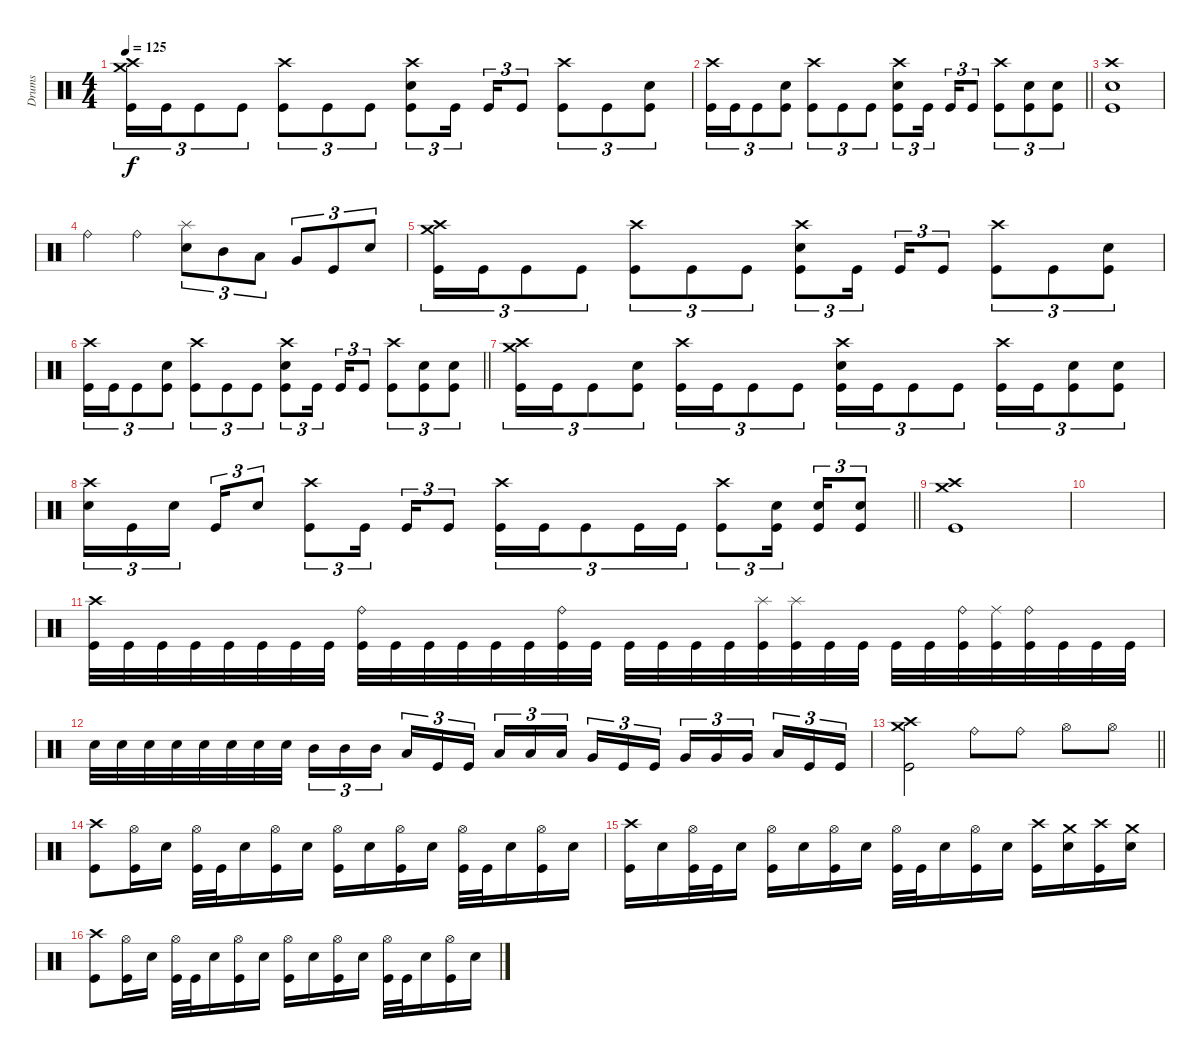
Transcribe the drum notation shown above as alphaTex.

\track ("Drums" "Drums") {instrument percussion}
\staff
\articulation defaults
\ts (4 4)
\tempo 125
\clef neutral
\ks c
("Crash high (hit)" "Crash medium (hit)" "Kick (hit)").16{tu (3 2) dy f} "Kick (hit)".16{tu (3 2)} "Kick (hit)".8{tu (3 2)} "Kick (hit)".8{tu (3 2)} ("Crash high (hit)" "Kick (hit)").8{tu (3 2)} "Kick (hit)".8{tu (3 2)} "Kick (hit)".8{tu (3 2)} ("Crash high (hit)" "Electric Snare (hit)" "Kick (hit)").8{tu (3 2)} "Kick (hit)".16{tu (3 2) beam splitsecondary} "Kick (hit)".16{tu (3 2)} "Kick (hit)".8{tu (3 2)} ("Crash high (hit)" "Kick (hit)").8{tu (3 2)} "Kick (hit)".8{tu (3 2)} ("Electric Snare (hit)" "Kick (hit)").8{tu (3 2)} |
\barLineRight lightlight
("Crash high (hit)" "Kick (hit)").16{tu (3 2)} "Kick (hit)".16{tu (3 2)} "Kick (hit)".8{tu (3 2)} ("Electric Snare (hit)" "Kick (hit)").8{tu (3 2)} ("Crash high (hit)" "Kick (hit)").8{tu (3 2)} "Kick (hit)".8{tu (3 2)} "Kick (hit)".8{tu (3 2)} ("Crash high (hit)" "Electric Snare (hit)" "Kick (hit)").8{tu (3 2)} "Kick (hit)".16{tu (3 2) beam splitsecondary} "Kick (hit)".16{tu (3 2)} "Kick (hit)".8{tu (3 2)} ("Crash high (hit)" "Kick (hit)").8{tu (3 2)} ("Electric Snare (hit)" "Kick (hit)").8{tu (3 2)} ("Electric Snare (hit)" "Kick (hit)").8{tu (3 2)} |
("Crash high (hit)" "Electric Snare (hit)" "Kick (hit)").1 |
"Ride (bell)".4 "Ride (bell)".4 ("Splash (hit)" "Electric Snare (hit)").8{tu (3 2)} "Mid Tom (hit)".8{tu (3 2)} "Low Tom (hit)".8{tu (3 2)} "Very Low Tom (hit)".8{tu (3 2)} "Kick (hit)".8{tu (3 2)} "Electric Snare (hit)".8{tu (3 2)} |
("Crash high (hit)" "Crash medium (hit)" "Kick (hit)").16{tu (3 2)} "Kick (hit)".16{tu (3 2)} "Kick (hit)".8{tu (3 2)} "Kick (hit)".8{tu (3 2)} ("Crash high (hit)" "Kick (hit)").8{tu (3 2)} "Kick (hit)".8{tu (3 2)} "Kick (hit)".8{tu (3 2)} ("Crash high (hit)" "Electric Snare (hit)" "Kick (hit)").8{tu (3 2)} "Kick (hit)".16{tu (3 2) beam splitsecondary} "Kick (hit)".16{tu (3 2)} "Kick (hit)".8{tu (3 2)} ("Crash high (hit)" "Kick (hit)").8{tu (3 2)} "Kick (hit)".8{tu (3 2)} ("Electric Snare (hit)" "Kick (hit)").8{tu (3 2)} |
\barLineRight lightlight
("Crash high (hit)" "Kick (hit)").16{tu (3 2)} "Kick (hit)".16{tu (3 2)} "Kick (hit)".8{tu (3 2)} ("Electric Snare (hit)" "Kick (hit)").8{tu (3 2)} ("Crash high (hit)" "Kick (hit)").8{tu (3 2)} "Kick (hit)".8{tu (3 2)} "Kick (hit)".8{tu (3 2)} ("Crash high (hit)" "Electric Snare (hit)" "Kick (hit)").8{tu (3 2)} "Kick (hit)".16{tu (3 2) beam splitsecondary} "Kick (hit)".16{tu (3 2)} "Kick (hit)".8{tu (3 2)} ("Crash high (hit)" "Kick (hit)").8{tu (3 2)} ("Electric Snare (hit)" "Kick (hit)").8{tu (3 2)} ("Electric Snare (hit)" "Kick (hit)").8{tu (3 2)} |
("Crash high (hit)" "Crash medium (hit)" "Kick (hit)").16{tu (3 2)} "Kick (hit)".16{tu (3 2)} "Kick (hit)".8{tu (3 2)} ("Electric Snare (hit)" "Kick (hit)").8{tu (3 2)} ("Crash high (hit)" "Kick (hit)").16{tu (3 2)} "Kick (hit)".16{tu (3 2)} "Kick (hit)".8{tu (3 2)} "Kick (hit)".8{tu (3 2)} ("Crash high (hit)" "Electric Snare (hit)" "Kick (hit)").16{tu (3 2)} "Kick (hit)".16{tu (3 2)} "Kick (hit)".8{tu (3 2)} "Kick (hit)".8{tu (3 2)} ("Crash high (hit)" "Kick (hit)").16{tu (3 2)} "Kick (hit)".16{tu (3 2)} ("Electric Snare (hit)" "Kick (hit)").8{tu (3 2)} ("Electric Snare (hit)" "Kick (hit)").8{tu (3 2)} |
\barLineRight lightlight
("Crash high (hit)" "Electric Snare (hit)").16{tu (3 2)} "Kick (hit)".16{tu (3 2)} "Electric Snare (hit)".16{tu (3 2) beam splitsecondary} "Kick (hit)".16{tu (3 2)} "Electric Snare (hit)".8{tu (3 2)} ("Crash high (hit)" "Kick (hit)").8{tu (3 2)} "Kick (hit)".16{tu (3 2) beam splitsecondary} "Kick (hit)".16{tu (3 2)} "Kick (hit)".8{tu (3 2)} ("Crash high (hit)" "Kick (hit)").16{tu (3 2)} "Kick (hit)".16{tu (3 2)} "Kick (hit)".8{tu (3 2)} "Kick (hit)".16{tu (3 2)} "Kick (hit)".16{tu (3 2)} ("Crash high (hit)" "Kick (hit)").8{tu (3 2)} ("Electric Snare (hit)" "Kick (hit)").16{tu (3 2) beam splitsecondary} ("Electric Snare (hit)" "Kick (hit)").16{tu (3 2)} ("Electric Snare (hit)" "Kick (hit)").8{tu (3 2)} |
\section ("" "")
("Crash high (hit)" "Crash medium (hit)" "Kick (hit)").1 |
|
("Crash high (hit)" "Kick (hit)").32 "Kick (hit)".32 "Kick (hit)".32 "Kick (hit)".32 "Kick (hit)".32 "Kick (hit)".32 "Kick (hit)".32 "Kick (hit)".32 ("Ride (bell)" "Kick (hit)").32 "Kick (hit)".32 "Kick (hit)".32 "Kick (hit)".32 "Kick (hit)".32 "Kick (hit)".32 ("Ride (bell)" "Kick (hit)").32 "Kick (hit)".32 "Kick (hit)".32 "Kick (hit)".32 "Kick (hit)".32 "Kick (hit)".32 ("Splash (hit)" "Kick (hit)").32 ("Splash (hit)" "Kick (hit)").32 "Kick (hit)".32 "Kick (hit)".32 "Kick (hit)".32 "Kick (hit)".32 ("Ride (bell)" "Kick (hit)").32 ("Ride (middle)" "Kick (hit)").32 ("Ride (bell)" "Kick (hit)").32 "Kick (hit)".32 "Kick (hit)".32 "Kick (hit)".32 |
"Electric Snare (hit)".32 "Electric Snare (hit)".32 "Electric Snare (hit)".32 "Electric Snare (hit)".32 "Electric Snare (hit)".32 "Electric Snare (hit)".32 "Electric Snare (hit)".32 "Electric Snare (hit)".32 "Mid Tom (hit)".16{tu (3 2)} "Mid Tom (hit)".16{tu (3 2)} "Mid Tom (hit)".16{tu (3 2) beam splitsecondary} "Low Tom (hit)".16{tu (3 2)} "Kick (hit)".16{tu (3 2)} "Kick (hit)".16{tu (3 2)} "Low Tom (hit)".16{tu (3 2)} "Low Tom (hit)".16{tu (3 2)} "Low Tom (hit)".16{tu (3 2) beam splitsecondary} "Very Low Tom (hit)".16{tu (3 2)} "Kick (hit)".16{tu (3 2)} "Kick (hit)".16{tu (3 2)} "Very Low Tom (hit)".16{tu (3 2)} "Very Low Tom (hit)".16{tu (3 2)} "Very Low Tom (hit)".16{tu (3 2) beam splitsecondary} "Low Floor Tom (hit)".16{tu (3 2)} "Kick (hit)".16{tu (3 2)} "Kick (hit)".16{tu (3 2)} |
\barLineRight lightlight
("Crash high (hit)" "Crash medium (hit)" "Kick (hit)").2 "Ride (bell)".8 "Ride (bell)".8 "Hi-Hat (open)".8 "Hi-Hat (open)".8 |
\section ("" "")
("Crash high (hit)" "Kick (hit)").8 ("Hi-Hat (open)" "Kick (hit)").16 "Electric Snare (hit)".16 ("Hi-Hat (open)" "Kick (hit)").32 "Kick (hit)".32 "Electric Snare (hit)".16 ("Hi-Hat (open)" "Kick (hit)").16 "Electric Snare (hit)".16 ("Hi-Hat (open)" "Kick (hit)").16 "Electric Snare (hit)".16 ("Hi-Hat (open)" "Kick (hit)").16 "Electric Snare (hit)".16 ("Hi-Hat (open)" "Kick (hit)").32 "Kick (hit)".32 "Electric Snare (hit)".16 ("Hi-Hat (open)" "Kick (hit)").16 "Electric Snare (hit)".16 |
("Crash high (hit)" "Kick (hit)").16 "Electric Snare (hit)".16 ("Hi-Hat (open)" "Kick (hit)").32 "Kick (hit)".32 "Electric Snare (hit)".16 ("Hi-Hat (open)" "Kick (hit)").16 "Electric Snare (hit)".16 ("Hi-Hat (open)" "Kick (hit)").16 "Electric Snare (hit)".16 ("Hi-Hat (open)" "Kick (hit)").32 "Kick (hit)".32 "Electric Snare (hit)".16 ("Hi-Hat (open)" "Kick (hit)").16 "Electric Snare (hit)".16 ("Crash high (hit)" "Kick (hit)").16 ("Crash medium (hit)" "Electric Snare (hit)").16 ("Crash high (hit)" "Kick (hit)").16 ("Crash medium (hit)" "Electric Snare (hit)").16 |
("Crash high (hit)" "Kick (hit)").8 ("Hi-Hat (open)" "Kick (hit)").16 "Electric Snare (hit)".16 ("Hi-Hat (open)" "Kick (hit)").32 "Kick (hit)".32 "Electric Snare (hit)".16 ("Hi-Hat (open)" "Kick (hit)").16 "Electric Snare (hit)".16 ("Hi-Hat (open)" "Kick (hit)").16 "Electric Snare (hit)".16 ("Hi-Hat (open)" "Kick (hit)").16 "Electric Snare (hit)".16 ("Hi-Hat (open)" "Kick (hit)").32 "Kick (hit)".32 "Electric Snare (hit)".16 ("Hi-Hat (open)" "Kick (hit)").16 "Electric Snare (hit)".16
